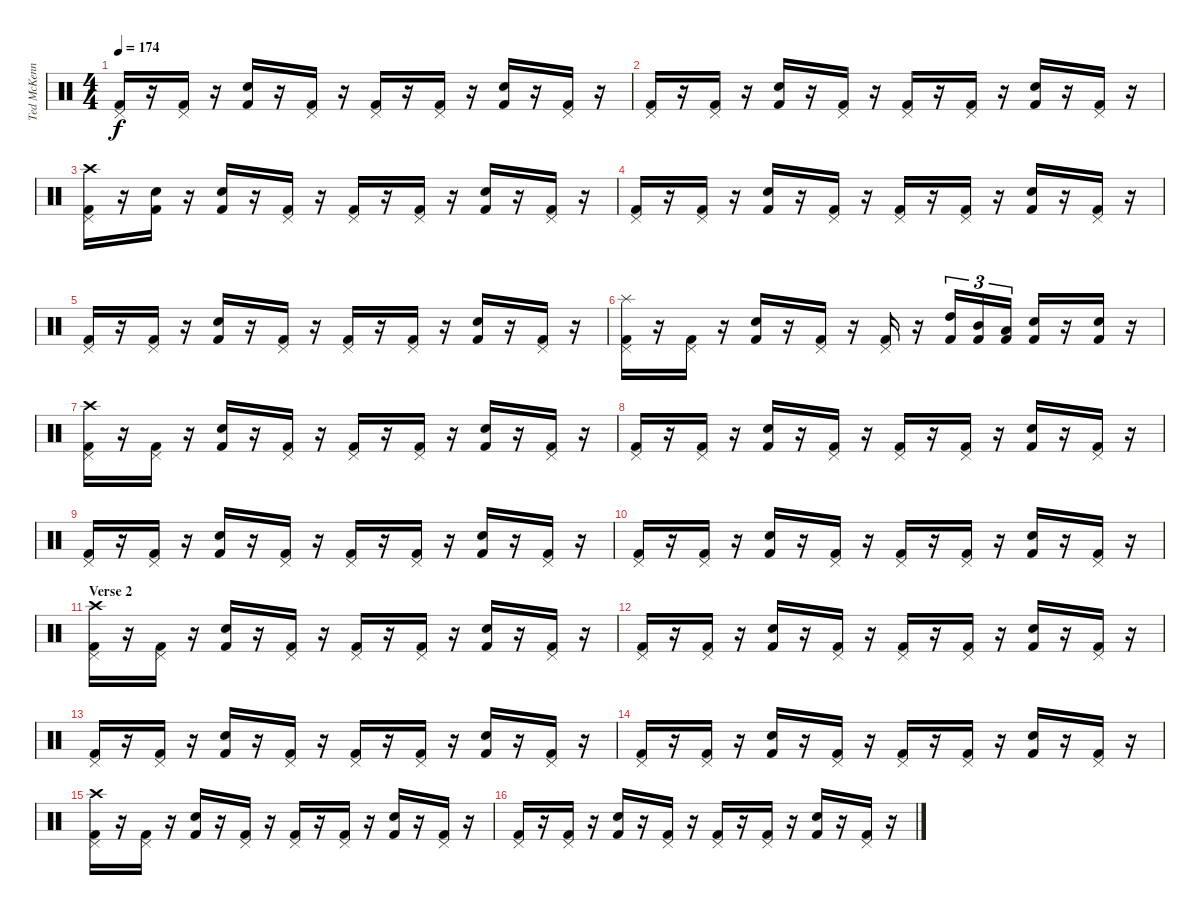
\track ("Ted McKenna" "Ted McKenn") {instrument percussion}
\staff {score}
\articulation defaults
\ts (4 4)
\tempo 174
\clef neutral
\ks c
("Pedal Hi-Hat (hit)" "Kick (hit) 2").16{dy f} r.16 ("Pedal Hi-Hat (hit)" "Kick (hit) 2").16 r.16 ("Snare (hit) 2" "Kick (hit) 2").16 r.16 ("Pedal Hi-Hat (hit)" "Kick (hit) 2").16 r.16 ("Pedal Hi-Hat (hit)" "Kick (hit) 2").16 r.16 ("Pedal Hi-Hat (hit)" "Kick (hit) 2").16 r.16 ("Snare (hit) 2" "Kick (hit) 2").16 r.16 ("Pedal Hi-Hat (hit)" "Kick (hit) 2").16 r.16 |
("Pedal Hi-Hat (hit)" "Kick (hit) 2").16 r.16 ("Pedal Hi-Hat (hit)" "Kick (hit) 2").16 r.16 ("Snare (hit) 2" "Kick (hit) 2").16 r.16 ("Pedal Hi-Hat (hit)" "Kick (hit) 2").16 r.16 ("Pedal Hi-Hat (hit)" "Kick (hit) 2").16 r.16 ("Pedal Hi-Hat (hit)" "Kick (hit) 2").16 r.16 ("Snare (hit) 2" "Kick (hit) 2").16 r.16 ("Pedal Hi-Hat (hit)" "Kick (hit) 2").16 r.16 |
("Crash high (hit)" "Pedal Hi-Hat (hit)" "Kick (hit) 2").16 r.16 ("Snare (hit) 2" "Kick (hit) 2").16 r.16 ("Snare (hit) 2" "Kick (hit) 2").16 r.16 ("Pedal Hi-Hat (hit)" "Kick (hit) 2").16 r.16 ("Pedal Hi-Hat (hit)" "Kick (hit) 2").16 r.16 ("Pedal Hi-Hat (hit)" "Kick (hit) 2").16 r.16 ("Snare (hit) 2" "Kick (hit) 2").16 r.16 ("Pedal Hi-Hat (hit)" "Kick (hit) 2").16 r.16 |
("Pedal Hi-Hat (hit)" "Kick (hit) 2").16 r.16 ("Pedal Hi-Hat (hit)" "Kick (hit) 2").16 r.16 ("Snare (hit) 2" "Kick (hit) 2").16 r.16 ("Pedal Hi-Hat (hit)" "Kick (hit) 2").16 r.16 ("Pedal Hi-Hat (hit)" "Kick (hit) 2").16 r.16 ("Pedal Hi-Hat (hit)" "Kick (hit) 2").16 r.16 ("Snare (hit) 2" "Kick (hit) 2").16 r.16 ("Pedal Hi-Hat (hit)" "Kick (hit) 2").16 r.16 |
("Pedal Hi-Hat (hit)" "Kick (hit) 2").16 r.16 ("Pedal Hi-Hat (hit)" "Kick (hit) 2").16 r.16 ("Snare (hit) 2" "Kick (hit) 2").16 r.16 ("Pedal Hi-Hat (hit)" "Kick (hit) 2").16 r.16 ("Pedal Hi-Hat (hit)" "Kick (hit) 2").16 r.16 ("Pedal Hi-Hat (hit)" "Kick (hit) 2").16 r.16 ("Snare (hit) 2" "Kick (hit) 2").16 r.16 ("Pedal Hi-Hat (hit)" "Kick (hit) 2").16 r.16 |
("Splash (hit)" "Pedal Hi-Hat (hit)" "Kick (hit) 2").16 r.16 ("Pedal Hi-Hat (hit)" "Kick (hit) 2").16 r.16 ("Snare (hit) 2" "Kick (hit) 2").16 r.16 ("Pedal Hi-Hat (hit)" "Kick (hit) 2").16 r.16 ("Pedal Hi-Hat (hit)" "Kick (hit) 2").16 r.16 ("High Tom (hit)" "Kick (hit) 2").16{tu (3 2)} ("Mid Tom (hit)" "Kick (hit) 2").16{tu (3 2)} ("Low Tom (hit)" "Kick (hit) 2").16{tu (3 2)} ("Electric Snare (hit)" "Kick (hit) 2").16 r.16 ("Snare (hit) 2" "Kick (hit) 2").16 r.16 |
("Crash high (hit)" "Pedal Hi-Hat (hit)" "Kick (hit) 2").16 r.16 ("Pedal Hi-Hat (hit)" "Kick (hit) 2").16 r.16 ("Snare (hit) 2" "Kick (hit) 2").16 r.16 ("Pedal Hi-Hat (hit)" "Kick (hit) 2").16 r.16 ("Pedal Hi-Hat (hit)" "Kick (hit) 2").16 r.16 ("Pedal Hi-Hat (hit)" "Kick (hit) 2").16 r.16 ("Snare (hit) 2" "Kick (hit) 2").16 r.16 ("Pedal Hi-Hat (hit)" "Kick (hit) 2").16 r.16 |
("Pedal Hi-Hat (hit)" "Kick (hit) 2").16 r.16 ("Pedal Hi-Hat (hit)" "Kick (hit) 2").16 r.16 ("Snare (hit) 2" "Kick (hit) 2").16 r.16 ("Pedal Hi-Hat (hit)" "Kick (hit) 2").16 r.16 ("Pedal Hi-Hat (hit)" "Kick (hit) 2").16 r.16 ("Pedal Hi-Hat (hit)" "Kick (hit) 2").16 r.16 ("Snare (hit) 2" "Kick (hit) 2").16 r.16 ("Pedal Hi-Hat (hit)" "Kick (hit) 2").16 r.16 |
("Pedal Hi-Hat (hit)" "Kick (hit) 2").16 r.16 ("Pedal Hi-Hat (hit)" "Kick (hit) 2").16 r.16 ("Snare (hit) 2" "Kick (hit) 2").16 r.16 ("Pedal Hi-Hat (hit)" "Kick (hit) 2").16 r.16 ("Pedal Hi-Hat (hit)" "Kick (hit) 2").16 r.16 ("Pedal Hi-Hat (hit)" "Kick (hit) 2").16 r.16 ("Snare (hit) 2" "Kick (hit) 2").16 r.16 ("Pedal Hi-Hat (hit)" "Kick (hit) 2").16 r.16 |
("Pedal Hi-Hat (hit)" "Kick (hit) 2").16 r.16 ("Pedal Hi-Hat (hit)" "Kick (hit) 2").16 r.16 ("Snare (hit) 2" "Kick (hit) 2").16 r.16 ("Pedal Hi-Hat (hit)" "Kick (hit) 2").16 r.16 ("Pedal Hi-Hat (hit)" "Kick (hit) 2").16 r.16 ("Pedal Hi-Hat (hit)" "Kick (hit) 2").16 r.16 ("Snare (hit) 2" "Kick (hit) 2").16 r.16 ("Pedal Hi-Hat (hit)" "Kick (hit) 2").16 r.16 |
\section ("" "Verse 2")
("Crash high (hit)" "Pedal Hi-Hat (hit)" "Kick (hit) 2").16 r.16 ("Pedal Hi-Hat (hit)" "Kick (hit) 2").16 r.16 ("Snare (hit) 2" "Kick (hit) 2").16 r.16 ("Pedal Hi-Hat (hit)" "Kick (hit) 2").16 r.16 ("Pedal Hi-Hat (hit)" "Kick (hit) 2").16 r.16 ("Pedal Hi-Hat (hit)" "Kick (hit) 2").16 r.16 ("Snare (hit) 2" "Kick (hit) 2").16 r.16 ("Pedal Hi-Hat (hit)" "Kick (hit) 2").16 r.16 |
("Pedal Hi-Hat (hit)" "Kick (hit) 2").16 r.16 ("Pedal Hi-Hat (hit)" "Kick (hit) 2").16 r.16 ("Snare (hit) 2" "Kick (hit) 2").16 r.16 ("Pedal Hi-Hat (hit)" "Kick (hit) 2").16 r.16 ("Pedal Hi-Hat (hit)" "Kick (hit) 2").16 r.16 ("Pedal Hi-Hat (hit)" "Kick (hit) 2").16 r.16 ("Snare (hit) 2" "Kick (hit) 2").16 r.16 ("Pedal Hi-Hat (hit)" "Kick (hit) 2").16 r.16 |
("Pedal Hi-Hat (hit)" "Kick (hit) 2").16 r.16 ("Pedal Hi-Hat (hit)" "Kick (hit) 2").16 r.16 ("Snare (hit) 2" "Kick (hit) 2").16 r.16 ("Pedal Hi-Hat (hit)" "Kick (hit) 2").16 r.16 ("Pedal Hi-Hat (hit)" "Kick (hit) 2").16 r.16 ("Pedal Hi-Hat (hit)" "Kick (hit) 2").16 r.16 ("Snare (hit) 2" "Kick (hit) 2").16 r.16 ("Pedal Hi-Hat (hit)" "Kick (hit) 2").16 r.16 |
("Pedal Hi-Hat (hit)" "Kick (hit) 2").16 r.16 ("Pedal Hi-Hat (hit)" "Kick (hit) 2").16 r.16 ("Snare (hit) 2" "Kick (hit) 2").16 r.16 ("Pedal Hi-Hat (hit)" "Kick (hit) 2").16 r.16 ("Pedal Hi-Hat (hit)" "Kick (hit) 2").16 r.16 ("Pedal Hi-Hat (hit)" "Kick (hit) 2").16 r.16 ("Snare (hit) 2" "Kick (hit) 2").16 r.16 ("Pedal Hi-Hat (hit)" "Kick (hit) 2").16 r.16 |
("Crash high (hit)" "Pedal Hi-Hat (hit)" "Kick (hit) 2").16 r.16 ("Pedal Hi-Hat (hit)" "Kick (hit) 2").16 r.16 ("Snare (hit) 2" "Kick (hit) 2").16 r.16 ("Pedal Hi-Hat (hit)" "Kick (hit) 2").16 r.16 ("Pedal Hi-Hat (hit)" "Kick (hit) 2").16 r.16 ("Pedal Hi-Hat (hit)" "Kick (hit) 2").16 r.16 ("Snare (hit) 2" "Kick (hit) 2").16 r.16 ("Pedal Hi-Hat (hit)" "Kick (hit) 2").16 r.16 |
("Pedal Hi-Hat (hit)" "Kick (hit) 2").16 r.16 ("Pedal Hi-Hat (hit)" "Kick (hit) 2").16 r.16 ("Snare (hit) 2" "Kick (hit) 2").16 r.16 ("Pedal Hi-Hat (hit)" "Kick (hit) 2").16 r.16 ("Pedal Hi-Hat (hit)" "Kick (hit) 2").16 r.16 ("Pedal Hi-Hat (hit)" "Kick (hit) 2").16 r.16 ("Snare (hit) 2" "Kick (hit) 2").16 r.16 ("Pedal Hi-Hat (hit)" "Kick (hit) 2").16 r.16
